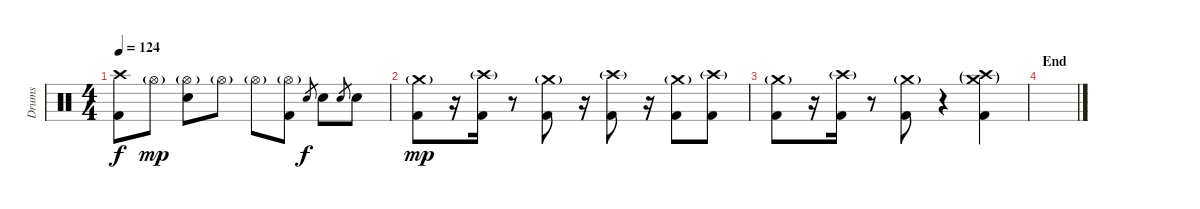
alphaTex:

\track ("Drums" "Drums") {instrument percussion}
\staff {score}
\articulation defaults
\ts (4 4)
\tempo 124
\clef neutral
\ks c
("Crash high (hit)" "Kick (hit) 2").8{dy f} "Hi-Hat (open)"{g}.8{dy mp} ("Hi-Hat (open)"{g} "Snare (hit) 2").8 "Hi-Hat (open)"{g}.8 "Hi-Hat (open)"{g}.8 ("Hi-Hat (open)"{g} "Kick (hit) 2").8 "Snare (hit) 2".8{gr dy f} "Snare (hit) 2".8 "Snare (hit) 2".8{gr} "Snare (hit) 2".8 |
("Crash medium (hit)"{g} "Kick (hit) 2").8{dy mp} r.16 ("Crash high (hit)"{g} "Kick (hit) 2").16 r.8 ("Crash medium (hit)"{g} "Kick (hit) 2").8 r.16 ("Crash high (hit)"{g} "Kick (hit) 2").8 r.16 ("Crash medium (hit)"{g} "Kick (hit) 2").8 ("Crash high (hit)"{g} "Kick (hit) 2").8 |
("Crash medium (hit)"{g} "Kick (hit) 2").8 r.16 ("Crash high (hit)"{g} "Kick (hit) 2").16 r.8 ("Crash medium (hit)"{g} "Kick (hit) 2").8 r.4 ("Crash high (hit)"{g} "Crash medium (hit)"{g} "Kick (hit) 2").4 |
\section ("" "End")
